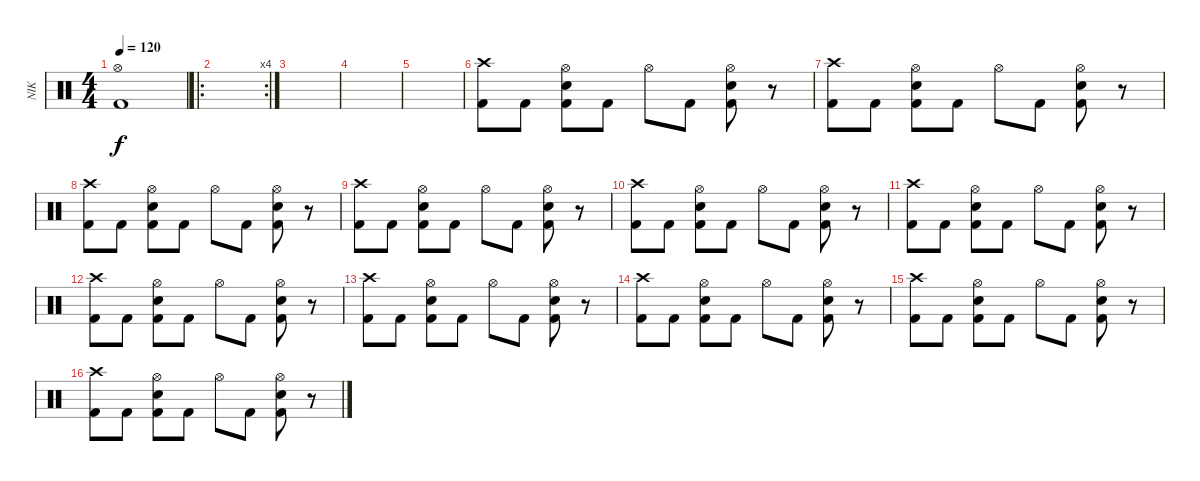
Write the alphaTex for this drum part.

\track ("NIK" "NIK") {instrument percussion}
\staff {score}
\articulation defaults
\ts (4 4)
\tempo 120
\clef neutral
\ks c
("Hi-Hat (open)" "Kick (hit) 2").1{dy f} |
\ro
\rc 4
|
|
|
|
("Crash high (hit)" "Kick (hit) 2").8 "Kick (hit) 2".8 ("Kick (hit) 2" "Hi-Hat (open)" "Snare (hit) 2").8 "Kick (hit) 2".8 "Hi-Hat (open)".8 "Kick (hit) 2".8 ("Kick (hit) 2" "Hi-Hat (open)" "Snare (hit) 2").8 r.8 |
("Crash high (hit)" "Kick (hit) 2").8 "Kick (hit) 2".8 ("Kick (hit) 2" "Hi-Hat (open)" "Snare (hit) 2").8 "Kick (hit) 2".8 "Hi-Hat (open)".8 "Kick (hit) 2".8 ("Kick (hit) 2" "Hi-Hat (open)" "Snare (hit) 2").8 r.8 |
("Crash high (hit)" "Kick (hit) 2").8 "Kick (hit) 2".8 ("Kick (hit) 2" "Hi-Hat (open)" "Snare (hit) 2").8 "Kick (hit) 2".8 "Hi-Hat (open)".8 "Kick (hit) 2".8 ("Kick (hit) 2" "Hi-Hat (open)" "Snare (hit) 2").8 r.8 |
("Crash high (hit)" "Kick (hit) 2").8 "Kick (hit) 2".8 ("Kick (hit) 2" "Hi-Hat (open)" "Snare (hit) 2").8 "Kick (hit) 2".8 "Hi-Hat (open)".8 "Kick (hit) 2".8 ("Kick (hit) 2" "Hi-Hat (open)" "Snare (hit) 2").8 r.8 |
("Crash high (hit)" "Kick (hit) 2").8 "Kick (hit) 2".8 ("Kick (hit) 2" "Hi-Hat (open)" "Snare (hit) 2").8 "Kick (hit) 2".8 "Hi-Hat (open)".8 "Kick (hit) 2".8 ("Kick (hit) 2" "Hi-Hat (open)" "Snare (hit) 2").8 r.8 |
("Crash high (hit)" "Kick (hit) 2").8 "Kick (hit) 2".8 ("Kick (hit) 2" "Hi-Hat (open)" "Snare (hit) 2").8 "Kick (hit) 2".8 "Hi-Hat (open)".8 "Kick (hit) 2".8 ("Kick (hit) 2" "Hi-Hat (open)" "Snare (hit) 2").8 r.8 |
("Crash high (hit)" "Kick (hit) 2").8 "Kick (hit) 2".8 ("Kick (hit) 2" "Hi-Hat (open)" "Snare (hit) 2").8 "Kick (hit) 2".8 "Hi-Hat (open)".8 "Kick (hit) 2".8 ("Kick (hit) 2" "Hi-Hat (open)" "Snare (hit) 2").8 r.8 |
("Crash high (hit)" "Kick (hit) 2").8 "Kick (hit) 2".8 ("Kick (hit) 2" "Hi-Hat (open)" "Snare (hit) 2").8 "Kick (hit) 2".8 "Hi-Hat (open)".8 "Kick (hit) 2".8 ("Kick (hit) 2" "Hi-Hat (open)" "Snare (hit) 2").8 r.8 |
("Crash high (hit)" "Kick (hit) 2").8 "Kick (hit) 2".8 ("Kick (hit) 2" "Hi-Hat (open)" "Snare (hit) 2").8 "Kick (hit) 2".8 "Hi-Hat (open)".8 "Kick (hit) 2".8 ("Kick (hit) 2" "Hi-Hat (open)" "Snare (hit) 2").8 r.8 |
("Crash high (hit)" "Kick (hit) 2").8 "Kick (hit) 2".8 ("Kick (hit) 2" "Hi-Hat (open)" "Snare (hit) 2").8 "Kick (hit) 2".8 "Hi-Hat (open)".8 "Kick (hit) 2".8 ("Kick (hit) 2" "Hi-Hat (open)" "Snare (hit) 2").8 r.8 |
("Crash high (hit)" "Kick (hit) 2").8 "Kick (hit) 2".8 ("Kick (hit) 2" "Hi-Hat (open)" "Snare (hit) 2").8 "Kick (hit) 2".8 "Hi-Hat (open)".8 "Kick (hit) 2".8 ("Kick (hit) 2" "Hi-Hat (open)" "Snare (hit) 2").8 r.8
